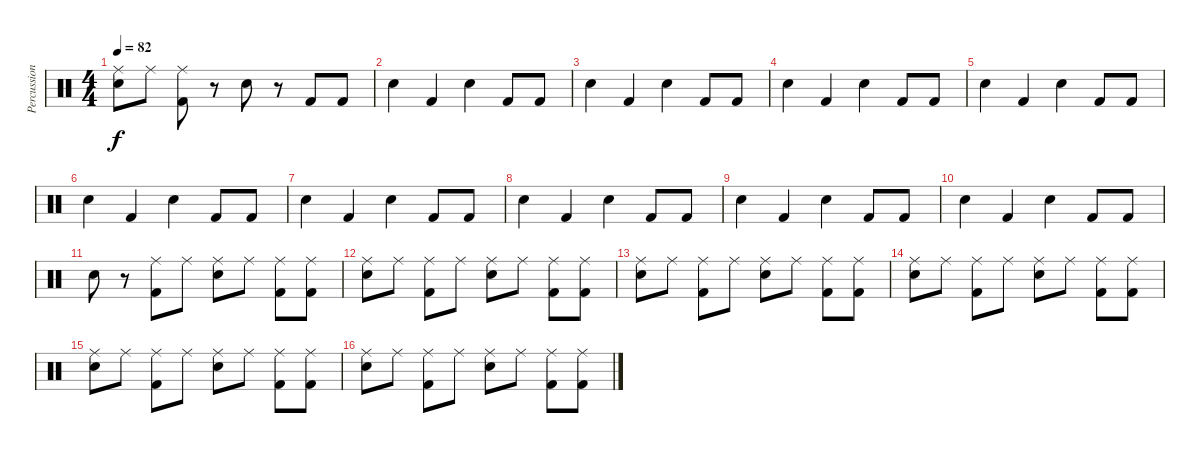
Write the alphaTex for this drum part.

\track ("Percussions" "Percussion") {instrument percussion}
\staff {score}
\articulation defaults
\ts (4 4)
\tempo 82
\clef neutral
\ks c
("Ride (middle)" "Snare (hit) 2").8{dy f} "Ride (middle)".8 ("Ride (middle)" "Kick (hit) 2").8 r.8 "Snare (hit) 2".8 r.8 "Kick (hit) 2".8 "Kick (hit) 2".8 |
"Snare (hit) 2".4 "Kick (hit) 2".4 "Snare (hit) 2".4 "Kick (hit) 2".8 "Kick (hit) 2".8 |
"Snare (hit) 2".4 "Kick (hit) 2".4 "Snare (hit) 2".4 "Kick (hit) 2".8 "Kick (hit) 2".8 |
"Snare (hit) 2".4 "Kick (hit) 2".4 "Snare (hit) 2".4 "Kick (hit) 2".8 "Kick (hit) 2".8 |
"Snare (hit) 2".4 "Kick (hit) 2".4 "Snare (hit) 2".4 "Kick (hit) 2".8 "Kick (hit) 2".8 |
"Snare (hit) 2".4 "Kick (hit) 2".4 "Snare (hit) 2".4 "Kick (hit) 2".8 "Kick (hit) 2".8 |
"Snare (hit) 2".4 "Kick (hit) 2".4 "Snare (hit) 2".4 "Kick (hit) 2".8 "Kick (hit) 2".8 |
"Snare (hit) 2".4 "Kick (hit) 2".4 "Snare (hit) 2".4 "Kick (hit) 2".8 "Kick (hit) 2".8 |
"Snare (hit) 2".4 "Kick (hit) 2".4 "Snare (hit) 2".4 "Kick (hit) 2".8 "Kick (hit) 2".8 |
"Snare (hit) 2".4 "Kick (hit) 2".4 "Snare (hit) 2".4 "Kick (hit) 2".8 "Kick (hit) 2".8 |
"Snare (hit) 2".8 r.8 ("Ride (middle)" "Kick (hit) 2").8 "Ride (middle)".8 ("Ride (middle)" "Snare (hit) 2").8 "Ride (middle)".8 ("Ride (middle)" "Kick (hit) 2").8 ("Ride (middle)" "Kick (hit) 2").8 |
("Ride (middle)" "Snare (hit) 2").8 "Ride (middle)".8 ("Ride (middle)" "Kick (hit) 2").8 "Ride (middle)".8 ("Ride (middle)" "Snare (hit) 2").8 "Ride (middle)".8 ("Ride (middle)" "Kick (hit) 2").8 ("Ride (middle)" "Kick (hit) 2").8 |
("Ride (middle)" "Snare (hit) 2").8 "Ride (middle)".8 ("Ride (middle)" "Kick (hit) 2").8 "Ride (middle)".8 ("Ride (middle)" "Snare (hit) 2").8 "Ride (middle)".8 ("Ride (middle)" "Kick (hit) 2").8 ("Ride (middle)" "Kick (hit) 2").8 |
("Ride (middle)" "Snare (hit) 2").8 "Ride (middle)".8 ("Ride (middle)" "Kick (hit) 2").8 "Ride (middle)".8 ("Ride (middle)" "Snare (hit) 2").8 "Ride (middle)".8 ("Ride (middle)" "Kick (hit) 2").8 ("Ride (middle)" "Kick (hit) 2").8 |
("Ride (middle)" "Snare (hit) 2").8 "Ride (middle)".8 ("Ride (middle)" "Kick (hit) 2").8 "Ride (middle)".8 ("Ride (middle)" "Snare (hit) 2").8 "Ride (middle)".8 ("Ride (middle)" "Kick (hit) 2").8 ("Ride (middle)" "Kick (hit) 2").8 |
("Ride (middle)" "Snare (hit) 2").8 "Ride (middle)".8 ("Ride (middle)" "Kick (hit) 2").8 "Ride (middle)".8 ("Ride (middle)" "Snare (hit) 2").8 "Ride (middle)".8 ("Ride (middle)" "Kick (hit) 2").8 ("Ride (middle)" "Kick (hit) 2").8
